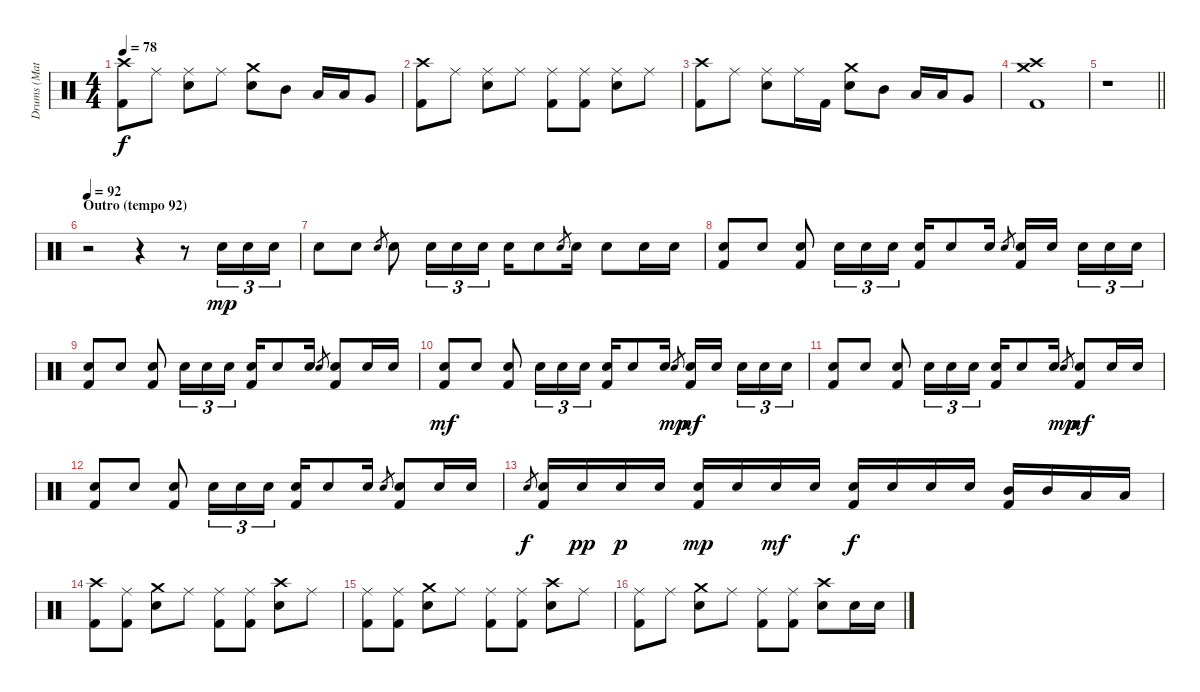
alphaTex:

\track ("Drums (Matt)" "Drums (Mat") {instrument percussion}
\staff {score}
\articulation defaults
\ts (4 4)
\tempo 78
\clef neutral
\ks c
("Crash high (hit)" "Kick (hit) 2").8{dy f} "Ride (middle)".8 ("Ride (middle)" "Snare (hit) 2").8 "Ride (middle)".8 ("Crash medium (hit)" "Snare (hit) 2").8 "Mid Tom (hit)".8 "Low Tom (hit)".16 "Low Tom (hit)".16 "Very Low Tom (hit)".8 |
("Crash high (hit)" "Kick (hit) 2").8 "Ride (middle)".8 ("Ride (middle)" "Snare (hit) 2").8 "Ride (middle)".8 ("Ride (middle)" "Kick (hit) 2").8 ("Ride (middle)" "Kick (hit) 2").8 ("Ride (middle)" "Snare (hit) 2").8 "Ride (middle)".8 |
("Crash high (hit)" "Kick (hit) 2").8 "Ride (middle)".8 ("Ride (middle)" "Snare (hit) 2").8 "Ride (middle)".16 "Kick (hit) 2".16 ("Crash medium (hit)" "Snare (hit) 2").8 "Mid Tom (hit)".8 "Low Tom (hit)".16 "Low Tom (hit)".16 "Very Low Tom (hit)".8 |
("Crash high (hit)" "Crash medium (hit)" "Kick (hit) 2").1 |
\barLineRight lightlight
r.1 |
\section ("" "Outro (tempo 92)")
\tempo 92
r.2 r.4 r.8 "Snare (hit) 2".16{tu (3 2) dy mp} "Snare (hit) 2".16{tu (3 2)} "Snare (hit) 2".16{tu (3 2)} |
"Snare (hit) 2".8 "Snare (hit) 2".8 "Snare (hit) 2".8{gr} "Snare (hit) 2".8 "Snare (hit) 2".16{tu (3 2)} "Snare (hit) 2".16{tu (3 2)} "Snare (hit) 2".16{tu (3 2)} "Snare (hit) 2".16 "Snare (hit) 2".8 "Snare (hit) 2".8{gr} "Snare (hit) 2".16 "Snare (hit) 2".8 "Snare (hit) 2".16 "Snare (hit) 2".16 |
("Snare (hit) 2" "Kick (hit) 2").8 "Snare (hit) 2".8 ("Snare (hit) 2" "Kick (hit) 2").8 "Snare (hit) 2".16{tu (3 2)} "Snare (hit) 2".16{tu (3 2)} "Snare (hit) 2".16{tu (3 2)} ("Snare (hit) 2" "Kick (hit) 2").16 "Snare (hit) 2".8 "Snare (hit) 2".16 "Snare (hit) 2".8{gr} ("Snare (hit) 2" "Kick (hit) 2").16 "Snare (hit) 2".16 "Snare (hit) 2".16{tu (3 2)} "Snare (hit) 2".16{tu (3 2)} "Snare (hit) 2".16{tu (3 2)} |
("Snare (hit) 2" "Kick (hit) 2").8 "Snare (hit) 2".8 ("Snare (hit) 2" "Kick (hit) 2").8 "Snare (hit) 2".16{tu (3 2)} "Snare (hit) 2".16{tu (3 2)} "Snare (hit) 2".16{tu (3 2)} ("Snare (hit) 2" "Kick (hit) 2").16 "Snare (hit) 2".8 "Snare (hit) 2".16 "Snare (hit) 2".8{gr} ("Snare (hit) 2" "Kick (hit) 2").8 "Snare (hit) 2".16 "Snare (hit) 2".16 |
("Snare (hit) 2" "Kick (hit) 2").8{dy mf} "Snare (hit) 2".8 ("Snare (hit) 2" "Kick (hit) 2").8 "Snare (hit) 2".16{tu (3 2)} "Snare (hit) 2".16{tu (3 2)} "Snare (hit) 2".16{tu (3 2)} ("Snare (hit) 2" "Kick (hit) 2").16 "Snare (hit) 2".8 "Snare (hit) 2".16 "Snare (hit) 2".8{gr dy mp} ("Snare (hit) 2" "Kick (hit) 2").16{dy mf} "Snare (hit) 2".16 "Snare (hit) 2".16{tu (3 2)} "Snare (hit) 2".16{tu (3 2)} "Snare (hit) 2".16{tu (3 2)} |
("Snare (hit) 2" "Kick (hit) 2").8 "Snare (hit) 2".8 ("Snare (hit) 2" "Kick (hit) 2").8 "Snare (hit) 2".16{tu (3 2)} "Snare (hit) 2".16{tu (3 2)} "Snare (hit) 2".16{tu (3 2)} ("Snare (hit) 2" "Kick (hit) 2").16 "Snare (hit) 2".8 "Snare (hit) 2".16 "Snare (hit) 2".8{gr dy mp} ("Snare (hit) 2" "Kick (hit) 2").8{dy mf} "Snare (hit) 2".16 "Snare (hit) 2".16 |
("Snare (hit) 2" "Kick (hit) 2").8 "Snare (hit) 2".8 ("Snare (hit) 2" "Kick (hit) 2").8 "Snare (hit) 2".16{tu (3 2)} "Snare (hit) 2".16{tu (3 2)} "Snare (hit) 2".16{tu (3 2)} ("Snare (hit) 2" "Kick (hit) 2").16 "Snare (hit) 2".8 "Snare (hit) 2".16 "Snare (hit) 2".8{gr} ("Snare (hit) 2" "Kick (hit) 2").8 "Snare (hit) 2".16 "Snare (hit) 2".16 |
"Snare (hit) 2".8{gr dy f} ("Snare (hit) 2" "Kick (hit) 2").16 "Snare (hit) 2".16{dy pp} "Snare (hit) 2".16{dy p} "Snare (hit) 2".16 ("Snare (hit) 2" "Kick (hit) 2").16{dy mp} "Snare (hit) 2".16 "Snare (hit) 2".16{dy mf} "Snare (hit) 2".16 ("Snare (hit) 2" "Kick (hit) 2").16{dy f} "Snare (hit) 2".16 "Snare (hit) 2".16 "Snare (hit) 2".16 ("Mid Tom (hit)" "Kick (hit) 2").16 "Mid Tom (hit)".16 "Low Tom (hit)".16 "Low Tom (hit)".16 |
("Crash high (hit)" "Kick (hit) 2").8 ("Ride (middle)" "Kick (hit) 2").8 ("Crash medium (hit)" "Snare (hit) 2").8 "Ride (middle)".8 ("Ride (middle)" "Kick (hit) 2").8 ("Ride (middle)" "Kick (hit) 2").8 ("Crash high (hit)" "Snare (hit) 2").8 "Ride (middle)".8 |
("Ride (middle)" "Kick (hit) 2").8 ("Ride (middle)" "Kick (hit) 2").8 ("Crash medium (hit)" "Snare (hit) 2").8 "Ride (middle)".8 ("Ride (middle)" "Kick (hit) 2").8 ("Ride (middle)" "Kick (hit) 2").8 ("Crash high (hit)" "Snare (hit) 2").8 "Ride (middle)".8 |
("Ride (middle)" "Kick (hit) 2").8 "Ride (middle)".8 ("Crash medium (hit)" "Snare (hit) 2").8 "Ride (middle)".8 ("Ride (middle)" "Kick (hit) 2").8 ("Ride (middle)" "Kick (hit) 2").8 ("Crash high (hit)" "Snare (hit) 2").8 "Snare (hit) 2".16 "Snare (hit) 2".16
